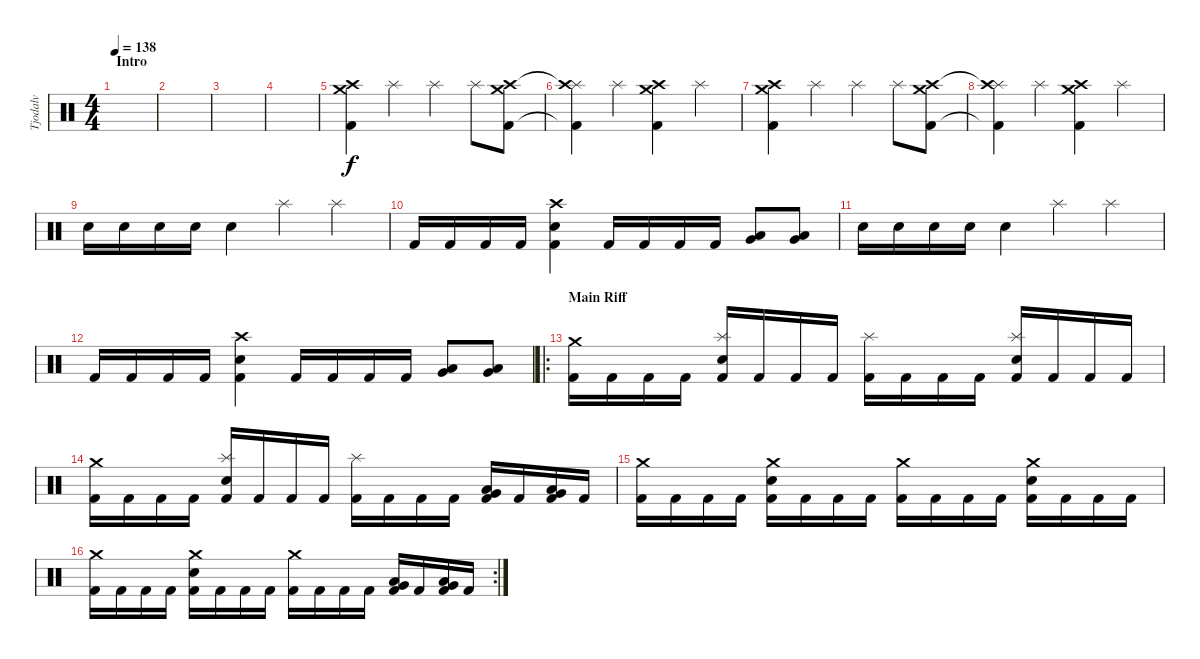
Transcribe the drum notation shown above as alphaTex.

\track ("Tjodalv" "Tjodalv") {instrument percussion}
\staff {score}
\articulation defaults
\ts (4 4)
\section ("" "Intro")
\tempo 138
\clef neutral
\ks c
|
|
|
|
("Crash medium (hit)" "Crash high (hit)" "Kick (hit) 2").4 "Splash (hit)".4 "Splash (hit)".4 "Splash (hit)".8 ("Crash medium (hit)" "Crash high (hit)" "Kick (hit) 2").8 |
("Splash (hit)" "Crash high (hit)"{t} "Kick (hit) 2"{t}).4 "Splash (hit)".4 ("Crash medium (hit)" "Crash high (hit)" "Kick (hit) 2").4 "Splash (hit)".4 |
("Crash medium (hit)" "Crash high (hit)" "Kick (hit) 2").4 "Splash (hit)".4 "Splash (hit)".4 "Splash (hit)".8 ("Crash medium (hit)" "Crash high (hit)" "Kick (hit) 2").8 |
("Splash (hit)" "Crash high (hit)"{t} "Kick (hit) 2"{t}).4 "Splash (hit)".4 ("Crash medium (hit)" "Crash high (hit)" "Kick (hit) 2").4 "Splash (hit)".4 |
"Electric Snare (hit)".16 "Electric Snare (hit)".16 "Electric Snare (hit)".16 "Electric Snare (hit)".16 "Electric Snare (hit)".4 "Splash (hit)".4 "Splash (hit)".4 |
"Kick (hit) 2".16 "Kick (hit) 2".16 "Kick (hit) 2".16 "Kick (hit) 2".16 ("Crash high (hit)" "Electric Snare (hit)" "Kick (hit) 2").4 "Kick (hit) 2".16 "Kick (hit) 2".16 "Kick (hit) 2".16 "Kick (hit) 2".16 ("Very Low Tom (hit)" "Low Floor Tom (hit)").8 ("Very Low Tom (hit)" "Low Floor Tom (hit)").8 |
"Electric Snare (hit)".16 "Electric Snare (hit)".16 "Electric Snare (hit)".16 "Electric Snare (hit)".16 "Electric Snare (hit)".4 "Splash (hit)".4 "Splash (hit)".4 |
"Kick (hit) 2".16 "Kick (hit) 2".16 "Kick (hit) 2".16 "Kick (hit) 2".16 ("Crash high (hit)" "Electric Snare (hit)" "Kick (hit) 2").4 "Kick (hit) 2".16 "Kick (hit) 2".16 "Kick (hit) 2".16 "Kick (hit) 2".16 ("Very Low Tom (hit)" "Low Floor Tom (hit)").8 ("Very Low Tom (hit)" "Low Floor Tom (hit)").8 |
\ro
\section ("" "Main Riff")
("Crash medium (hit)" "Kick (hit) 2").16 "Kick (hit) 2".16 "Kick (hit) 2".16 "Kick (hit) 2".16 ("Splash (hit)" "Snare (hit) 2" "Kick (hit) 2").16 "Kick (hit) 2".16 "Kick (hit) 2".16 "Kick (hit) 2".16 ("Splash (hit)" "Kick (hit) 2").16 "Kick (hit) 2".16 "Kick (hit) 2".16 "Kick (hit) 2".16 ("Splash (hit)" "Snare (hit) 2" "Kick (hit) 2").16 "Kick (hit) 2".16 "Kick (hit) 2".16 "Kick (hit) 2".16 |
("Crash medium (hit)" "Kick (hit) 2").16 "Kick (hit) 2".16 "Kick (hit) 2".16 "Kick (hit) 2".16 ("Splash (hit)" "Snare (hit) 2" "Kick (hit) 2").16 "Kick (hit) 2".16 "Kick (hit) 2".16 "Kick (hit) 2".16 ("Splash (hit)" "Kick (hit) 2").16 "Kick (hit) 2".16 "Kick (hit) 2".16 "Kick (hit) 2".16 ("Low Tom (hit)" "Very Low Tom (hit)" "Kick (hit) 2").16 "Kick (hit) 2".16 ("Low Floor Tom (hit)" "Very Low Tom (hit)" "Kick (hit) 2").16 "Kick (hit) 2".16 |
("Crash medium (hit)" "Kick (hit) 2").16 "Kick (hit) 2".16 "Kick (hit) 2".16 "Kick (hit) 2".16 ("Crash medium (hit)" "Snare (hit) 2" "Kick (hit) 2").16 "Kick (hit) 2".16 "Kick (hit) 2".16 "Kick (hit) 2".16 ("Crash medium (hit)" "Kick (hit) 2").16 "Kick (hit) 2".16 "Kick (hit) 2".16 "Kick (hit) 2".16 ("Crash medium (hit)" "Snare (hit) 2" "Kick (hit) 2").16 "Kick (hit) 2".16 "Kick (hit) 2".16 "Kick (hit) 2".16 |
\rc 2
("Crash medium (hit)" "Kick (hit) 2").16 "Kick (hit) 2".16 "Kick (hit) 2".16 "Kick (hit) 2".16 ("Crash medium (hit)" "Snare (hit) 2" "Kick (hit) 2").16 "Kick (hit) 2".16 "Kick (hit) 2".16 "Kick (hit) 2".16 ("Crash medium (hit)" "Kick (hit) 2").16 "Kick (hit) 2".16 "Kick (hit) 2".16 "Kick (hit) 2".16 ("Low Tom (hit)" "Very Low Tom (hit)" "Kick (hit) 2").16 "Kick (hit) 2".16 ("Low Floor Tom (hit)" "Very Low Tom (hit)" "Kick (hit) 2").16 "Kick (hit) 2".16
